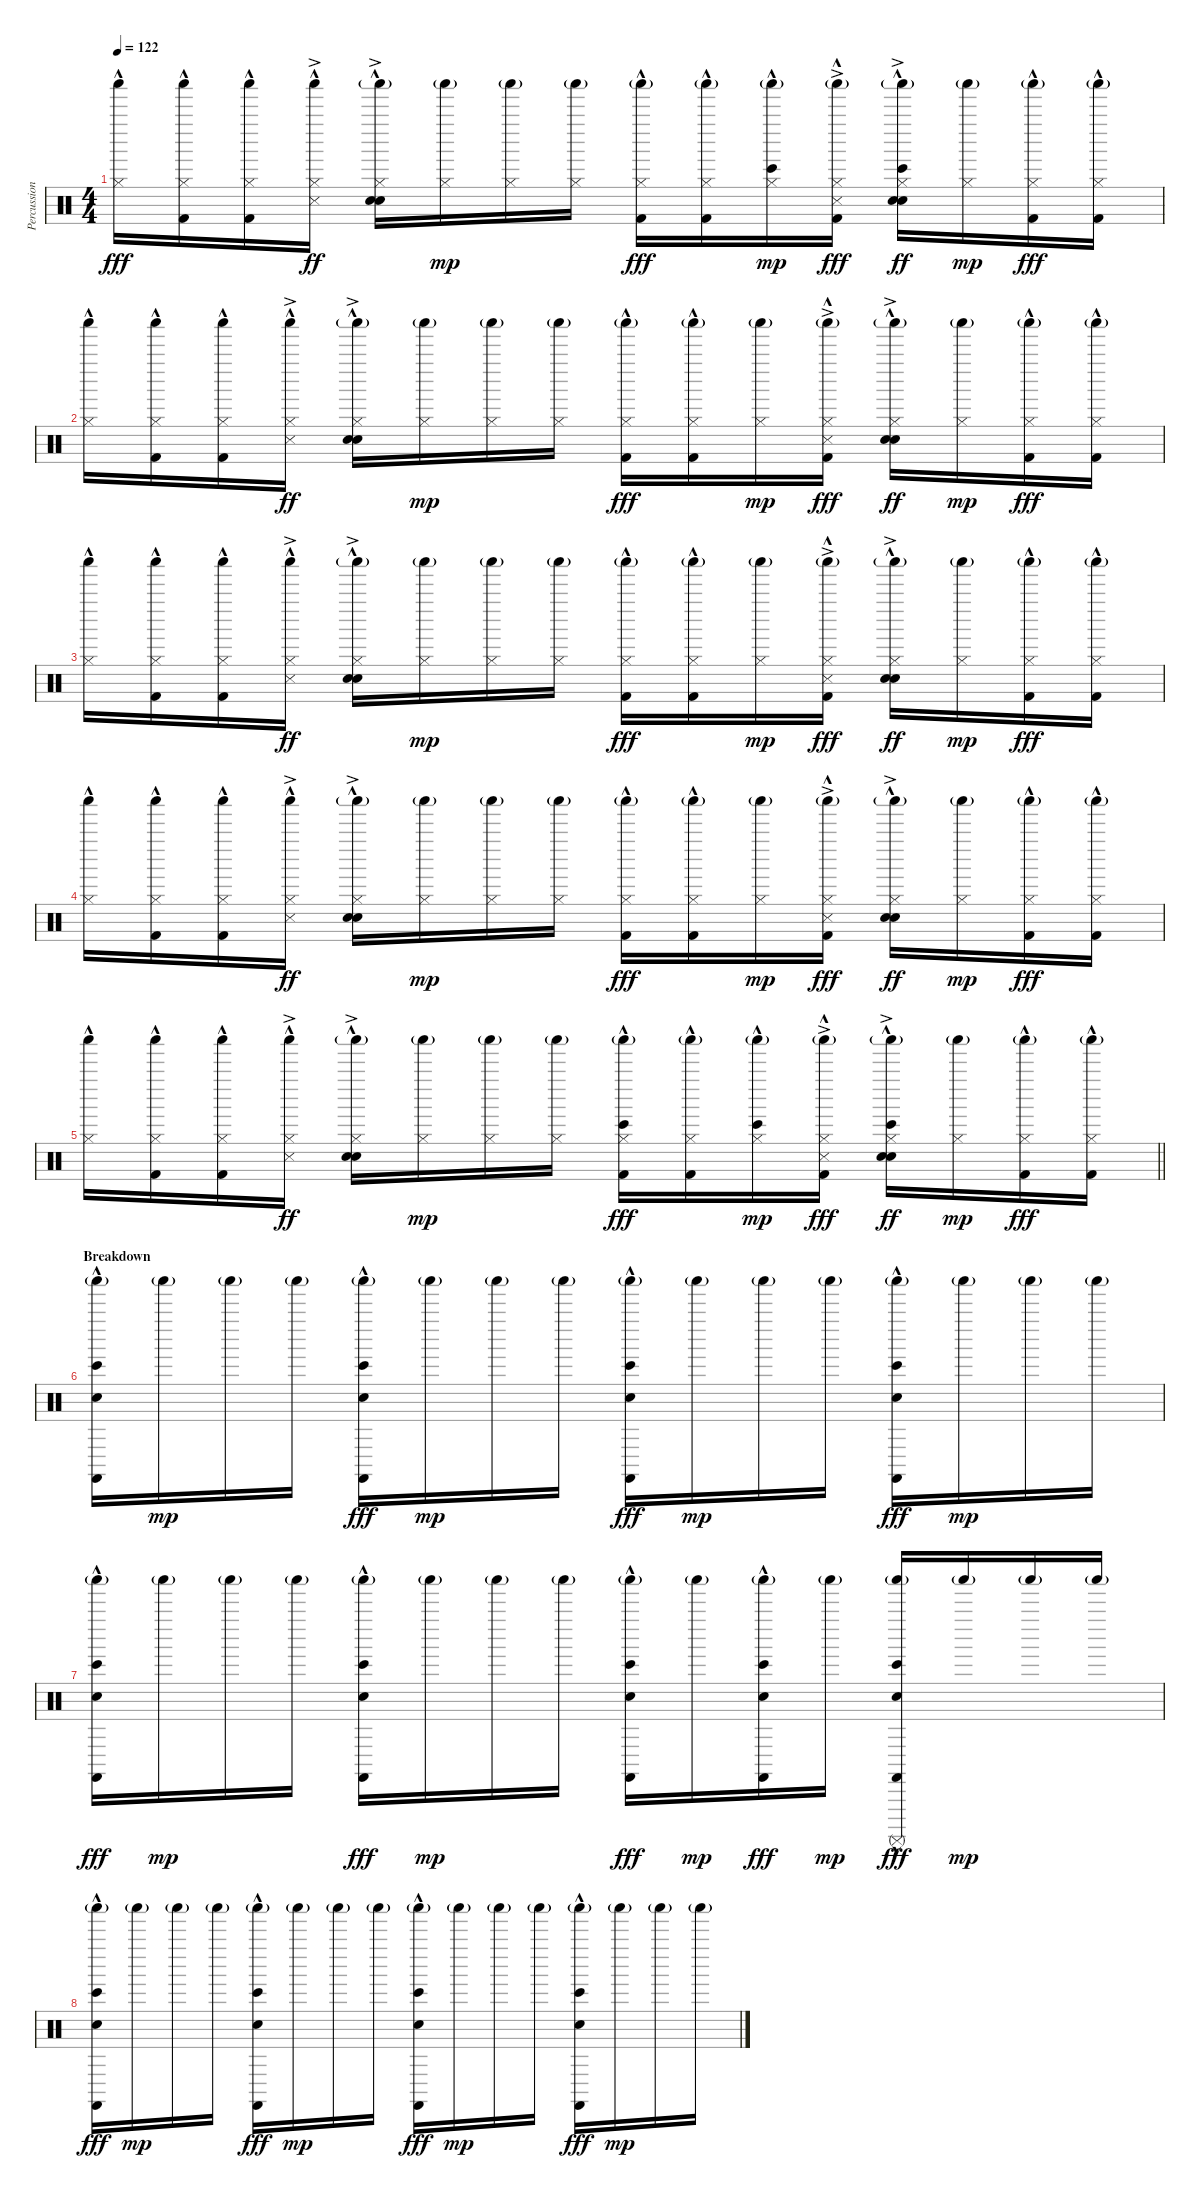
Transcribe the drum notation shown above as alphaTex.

\track ("Percussion" "Percussion") {instrument percussion}
\staff {score}
\articulation defaults
\ts (4 4)
\tempo 122
\clef neutral
\ks c
("Shaker (hit)" "Hi-Hat (closed)"{hac}).16{dy fff} ("Shaker (hit)" "Hi-Hat (closed)"{hac} "Kick (hit) 2"{hac}).16 ("Shaker (hit)" "Hi-Hat (closed)"{hac} "Kick (hit) 2"{hac}).16 ("Shaker (hit)" "Hi-Hat (closed)"{hac} "Snare (side stick) 3"{ac}).16{dy ff} ("Shaker (hit)"{g} "Hi-Hat (closed)" "Hand Clap (hit)"{hac} "Snare (hit) 2"{ac}).16 ("Shaker (hit)"{g} "Hi-Hat (closed)").16{dy mp} ("Shaker (hit)"{g} "Hi-Hat (closed)").16 ("Shaker (hit)"{g} "Hi-Hat (closed)").16 ("Shaker (hit)"{g} "Hi-Hat (closed)" "Kick (hit) 2"{hac}).16{dy fff} ("Shaker (hit)"{g} "Hi-Hat (closed)" "Kick (hit) 2"{hac}).16 ("Bongo High (hit)"{hac} "Shaker (hit)"{g} "Hi-Hat (closed)").16{dy mp} ("Shaker (hit)"{g} "Hi-Hat (closed)" "Snare (side stick) 3"{ac} "Kick (hit) 2"{hac}).16{dy fff} ("Bongo High (hit)"{hac} "Shaker (hit)"{g} "Hi-Hat (closed)" "Hand Clap (hit)"{hac} "Snare (hit) 2"{ac}).16{dy ff} ("Shaker (hit)"{g} "Hi-Hat (closed)").16{dy mp} ("Shaker (hit)"{g} "Hi-Hat (closed)" "Kick (hit) 2"{hac}).16{dy fff} ("Shaker (hit)"{g} "Hi-Hat (closed)" "Kick (hit) 2"{hac}).16 |
("Shaker (hit)" "Hi-Hat (closed)"{hac}).16 ("Shaker (hit)" "Hi-Hat (closed)"{hac} "Kick (hit) 2"{hac}).16 ("Shaker (hit)" "Hi-Hat (closed)"{hac} "Kick (hit) 2"{hac}).16 ("Shaker (hit)" "Hi-Hat (closed)"{hac} "Snare (side stick) 3"{ac}).16{dy ff} ("Shaker (hit)"{g} "Hi-Hat (closed)" "Hand Clap (hit)"{hac} "Snare (hit) 2"{ac}).16 ("Shaker (hit)"{g} "Hi-Hat (closed)").16{dy mp} ("Shaker (hit)"{g} "Hi-Hat (closed)").16 ("Shaker (hit)"{g} "Hi-Hat (closed)").16 ("Shaker (hit)"{g} "Hi-Hat (closed)" "Kick (hit) 2"{hac}).16{dy fff} ("Shaker (hit)"{g} "Hi-Hat (closed)" "Kick (hit) 2"{hac}).16 ("Shaker (hit)"{g} "Hi-Hat (closed)").16{dy mp} ("Shaker (hit)"{g} "Hi-Hat (closed)" "Snare (side stick) 3"{ac} "Kick (hit) 2"{hac}).16{dy fff} ("Shaker (hit)"{g} "Hi-Hat (closed)" "Hand Clap (hit)"{hac} "Snare (hit) 2"{ac}).16{dy ff} ("Shaker (hit)"{g} "Hi-Hat (closed)").16{dy mp} ("Shaker (hit)"{g} "Hi-Hat (closed)" "Kick (hit) 2"{hac}).16{dy fff} ("Shaker (hit)"{g} "Hi-Hat (closed)" "Kick (hit) 2"{hac}).16 |
("Shaker (hit)" "Hi-Hat (closed)"{hac}).16 ("Shaker (hit)" "Hi-Hat (closed)"{hac} "Kick (hit) 2"{hac}).16 ("Shaker (hit)" "Hi-Hat (closed)"{hac} "Kick (hit) 2"{hac}).16 ("Shaker (hit)" "Hi-Hat (closed)"{hac} "Snare (side stick) 3"{ac}).16{dy ff} ("Shaker (hit)"{g} "Hi-Hat (closed)" "Hand Clap (hit)"{hac} "Snare (hit) 2"{ac}).16 ("Shaker (hit)"{g} "Hi-Hat (closed)").16{dy mp} ("Shaker (hit)"{g} "Hi-Hat (closed)").16 ("Shaker (hit)"{g} "Hi-Hat (closed)").16 ("Shaker (hit)"{g} "Hi-Hat (closed)" "Kick (hit) 2"{hac}).16{dy fff} ("Shaker (hit)"{g} "Hi-Hat (closed)" "Kick (hit) 2"{hac}).16 ("Shaker (hit)"{g} "Hi-Hat (closed)").16{dy mp} ("Shaker (hit)"{g} "Hi-Hat (closed)" "Snare (side stick) 3"{ac} "Kick (hit) 2"{hac}).16{dy fff} ("Shaker (hit)"{g} "Hi-Hat (closed)" "Hand Clap (hit)"{hac} "Snare (hit) 2"{ac}).16{dy ff} ("Shaker (hit)"{g} "Hi-Hat (closed)").16{dy mp} ("Shaker (hit)"{g} "Hi-Hat (closed)" "Kick (hit) 2"{hac}).16{dy fff} ("Shaker (hit)"{g} "Hi-Hat (closed)" "Kick (hit) 2"{hac}).16 |
("Shaker (hit)" "Hi-Hat (closed)"{hac}).16 ("Shaker (hit)" "Hi-Hat (closed)"{hac} "Kick (hit) 2"{hac}).16 ("Shaker (hit)" "Hi-Hat (closed)"{hac} "Kick (hit) 2"{hac}).16 ("Shaker (hit)" "Hi-Hat (closed)"{hac} "Snare (side stick) 3"{ac}).16{dy ff} ("Shaker (hit)"{g} "Hi-Hat (closed)" "Hand Clap (hit)"{hac} "Snare (hit) 2"{ac}).16 ("Shaker (hit)"{g} "Hi-Hat (closed)").16{dy mp} ("Shaker (hit)"{g} "Hi-Hat (closed)").16 ("Shaker (hit)"{g} "Hi-Hat (closed)").16 ("Shaker (hit)"{g} "Hi-Hat (closed)" "Kick (hit) 2"{hac}).16{dy fff} ("Shaker (hit)"{g} "Hi-Hat (closed)" "Kick (hit) 2"{hac}).16 ("Shaker (hit)"{g} "Hi-Hat (closed)").16{dy mp} ("Shaker (hit)"{g} "Hi-Hat (closed)" "Snare (side stick) 3"{ac} "Kick (hit) 2"{hac}).16{dy fff} ("Shaker (hit)"{g} "Hi-Hat (closed)" "Hand Clap (hit)"{hac} "Snare (hit) 2"{ac}).16{dy ff} ("Shaker (hit)"{g} "Hi-Hat (closed)").16{dy mp} ("Shaker (hit)"{g} "Hi-Hat (closed)" "Kick (hit) 2"{hac}).16{dy fff} ("Shaker (hit)"{g} "Hi-Hat (closed)" "Kick (hit) 2"{hac}).16 |
\barLineRight lightlight
("Shaker (hit)" "Hi-Hat (closed)"{hac}).16 ("Shaker (hit)" "Hi-Hat (closed)"{hac} "Kick (hit) 2"{hac}).16 ("Shaker (hit)" "Hi-Hat (closed)"{hac} "Kick (hit) 2"{hac}).16 ("Shaker (hit)" "Hi-Hat (closed)"{hac} "Snare (side stick) 3"{ac}).16{dy ff} ("Shaker (hit)"{g} "Hi-Hat (closed)" "Hand Clap (hit)"{hac} "Snare (hit) 2"{ac}).16 ("Shaker (hit)"{g} "Hi-Hat (closed)").16{dy mp} ("Shaker (hit)"{g} "Hi-Hat (closed)").16 ("Shaker (hit)"{g} "Hi-Hat (closed)").16 ("Bongo High (hit)"{hac} "Shaker (hit)"{g} "Hi-Hat (closed)" "Kick (hit) 2"{hac}).16{dy fff} ("Shaker (hit)"{g} "Hi-Hat (closed)" "Kick (hit) 2"{hac}).16 ("Bongo High (hit)"{hac} "Shaker (hit)"{g} "Hi-Hat (closed)").16{dy mp} ("Shaker (hit)"{g} "Hi-Hat (closed)" "Snare (side stick) 3"{ac} "Kick (hit) 2"{hac}).16{dy fff} ("Bongo High (hit)"{hac} "Shaker (hit)"{g} "Hi-Hat (closed)" "Hand Clap (hit)"{hac} "Snare (hit) 2"{ac}).16{dy ff} ("Shaker (hit)"{g} "Hi-Hat (closed)").16{dy mp} ("Shaker (hit)"{g} "Hi-Hat (closed)" "Kick (hit) 2"{hac}).16{dy fff} ("Shaker (hit)"{g} "Hi-Hat (closed)" "Kick (hit) 2"{hac}).16 |
\section ("" "Breakdown")
("Bongo High (hit)"{hac} "Castanets (hit)"{hac} "Shaker (hit)"{g} "Hand Clap (hit)"{hac}).16 "Shaker (hit)"{g}.16{dy mp} "Shaker (hit)"{g}.16 "Shaker (hit)"{g}.16 ("Bongo High (hit)"{hac} "Castanets (hit)"{hac} "Shaker (hit)"{g} "Hand Clap (hit)"{hac}).16{dy fff} "Shaker (hit)"{g}.16{dy mp} "Shaker (hit)"{g}.16 "Shaker (hit)"{g}.16 ("Bongo High (hit)"{hac} "Castanets (hit)"{hac} "Shaker (hit)"{g} "Hand Clap (hit)"{hac}).16{dy fff} "Shaker (hit)"{g}.16{dy mp} "Shaker (hit)"{g}.16 "Shaker (hit)"{g}.16 ("Bongo High (hit)"{hac} "Castanets (hit)"{hac} "Shaker (hit)"{g} "Hand Clap (hit)"{hac}).16{dy fff} "Shaker (hit)"{g}.16{dy mp} "Shaker (hit)"{g}.16 "Shaker (hit)"{g}.16 |
("Bongo High (hit)"{hac} "Castanets (hit)"{hac} "Shaker (hit)"{g} "Hand Clap (hit)"{hac}).16{dy fff} "Shaker (hit)"{g}.16{dy mp} "Shaker (hit)"{g}.16 "Shaker (hit)"{g}.16 ("Bongo High (hit)"{hac} "Castanets (hit)"{hac} "Shaker (hit)"{g} "Hand Clap (hit)"{hac}).16{dy fff} "Shaker (hit)"{g}.16{dy mp} "Shaker (hit)"{g}.16 "Shaker (hit)"{g}.16 ("Bongo High (hit)"{hac} "Castanets (hit)"{hac} "Shaker (hit)"{g} "Hand Clap (hit)"{hac}).16{dy fff} "Shaker (hit)"{g}.16{dy mp} ("Bongo High (hit)"{hac} "Castanets (hit)"{hac} "Shaker (hit)"{g} "Hand Clap (hit)"{hac}).16{dy fff} "Shaker (hit)"{g}.16{dy mp} ("Bongo High (hit)"{hac} "Castanets (hit)"{hac} "Shaker (hit)"{g} "Hand Clap (hit)"{hac} "Surdo (mute)"{hac}).16{dy fff} "Shaker (hit)"{g}.16{dy mp} "Shaker (hit)"{g}.16 "Shaker (hit)"{g}.16 |
("Bongo High (hit)"{hac} "Castanets (hit)"{hac} "Shaker (hit)"{g} "Hand Clap (hit)"{hac}).16{dy fff} "Shaker (hit)"{g}.16{dy mp} "Shaker (hit)"{g}.16 "Shaker (hit)"{g}.16 ("Bongo High (hit)"{hac} "Castanets (hit)"{hac} "Shaker (hit)"{g} "Hand Clap (hit)"{hac}).16{dy fff} "Shaker (hit)"{g}.16{dy mp} "Shaker (hit)"{g}.16 "Shaker (hit)"{g}.16 ("Bongo High (hit)"{hac} "Castanets (hit)"{hac} "Shaker (hit)"{g} "Hand Clap (hit)"{hac}).16{dy fff} "Shaker (hit)"{g}.16{dy mp} "Shaker (hit)"{g}.16 "Shaker (hit)"{g}.16 ("Bongo High (hit)"{hac} "Castanets (hit)"{hac} "Shaker (hit)"{g} "Hand Clap (hit)"{hac}).16{dy fff} "Shaker (hit)"{g}.16{dy mp} "Shaker (hit)"{g}.16 "Shaker (hit)"{g}.16
